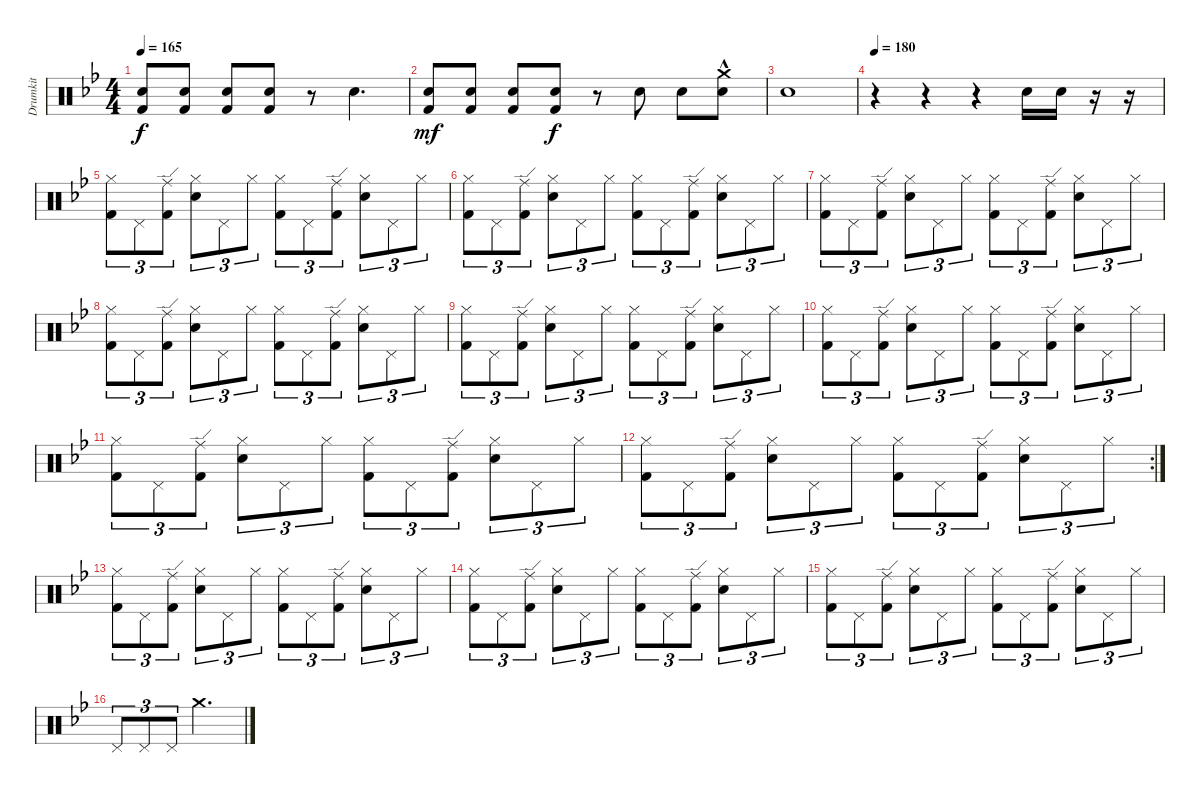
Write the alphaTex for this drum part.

\track ("Drumkit" "Drumkit") {instrument percussion}
\staff {score}
\articulation defaults
\ts (4 4)
\tempo 165
\clef neutral
\ks bb
("Snare (hit) 2" "Kick (hit) 2").8{dy f} ("Snare (hit) 2" "Kick (hit) 2").8 ("Snare (hit) 2" "Kick (hit) 2").8 ("Snare (hit) 2" "Kick (hit) 2").8 r.8 "Snare (hit) 2".4{d} |
("Snare (hit) 2" "Kick (hit) 2").8{dy mf} ("Snare (hit) 2" "Kick (hit) 2").8 ("Snare (hit) 2" "Kick (hit) 2").8 ("Snare (hit) 2" "Kick (hit) 2").8{dy f} r.8 "Snare (hit) 2".8 "Snare (hit) 2".8 ("Snare (hit) 2" "Crash medium (hit)"{hac}).8 |
"Snare (hit) 2".1 |
\tempo 180
r.4 r.4 r.4 "Snare (hit) 2".16 "Snare (hit) 2".16 r.16 r.16 |
("Hi-Hat (closed)" "Kick (hit) 2").8{tu (3 2)} "Pedal Hi-Hat (hit)".8{tu (3 2)} ("Kick (hit) 2" "Ride (edge)").8{tu (3 2)} ("Hi-Hat (closed)" "Snare (hit) 2").8{tu (3 2)} "Pedal Hi-Hat (hit)".8{tu (3 2)} "Hi-Hat (closed)".8{tu (3 2)} ("Hi-Hat (closed)" "Kick (hit) 2").8{tu (3 2)} "Pedal Hi-Hat (hit)".8{tu (3 2)} ("Kick (hit) 2" "Ride (edge)").8{tu (3 2)} ("Hi-Hat (closed)" "Snare (hit) 2").8{tu (3 2)} "Pedal Hi-Hat (hit)".8{tu (3 2)} "Hi-Hat (closed)".8{tu (3 2)} |
("Hi-Hat (closed)" "Kick (hit) 2").8{tu (3 2)} "Pedal Hi-Hat (hit)".8{tu (3 2)} ("Kick (hit) 2" "Ride (edge)").8{tu (3 2)} ("Hi-Hat (closed)" "Snare (hit) 2").8{tu (3 2)} "Pedal Hi-Hat (hit)".8{tu (3 2)} "Hi-Hat (closed)".8{tu (3 2)} ("Hi-Hat (closed)" "Kick (hit) 2").8{tu (3 2)} "Pedal Hi-Hat (hit)".8{tu (3 2)} ("Kick (hit) 2" "Ride (edge)").8{tu (3 2)} ("Hi-Hat (closed)" "Snare (hit) 2").8{tu (3 2)} "Pedal Hi-Hat (hit)".8{tu (3 2)} "Hi-Hat (closed)".8{tu (3 2)} |
("Hi-Hat (closed)" "Kick (hit) 2").8{tu (3 2)} "Pedal Hi-Hat (hit)".8{tu (3 2)} ("Kick (hit) 2" "Ride (edge)").8{tu (3 2)} ("Hi-Hat (closed)" "Snare (hit) 2").8{tu (3 2)} "Pedal Hi-Hat (hit)".8{tu (3 2)} "Hi-Hat (closed)".8{tu (3 2)} ("Hi-Hat (closed)" "Kick (hit) 2").8{tu (3 2)} "Pedal Hi-Hat (hit)".8{tu (3 2)} ("Kick (hit) 2" "Ride (edge)").8{tu (3 2)} ("Hi-Hat (closed)" "Snare (hit) 2").8{tu (3 2)} "Pedal Hi-Hat (hit)".8{tu (3 2)} "Hi-Hat (closed)".8{tu (3 2)} |
("Hi-Hat (closed)" "Kick (hit) 2").8{tu (3 2)} "Pedal Hi-Hat (hit)".8{tu (3 2)} ("Kick (hit) 2" "Ride (edge)").8{tu (3 2)} ("Hi-Hat (closed)" "Snare (hit) 2").8{tu (3 2)} "Pedal Hi-Hat (hit)".8{tu (3 2)} "Hi-Hat (closed)".8{tu (3 2)} ("Hi-Hat (closed)" "Kick (hit) 2").8{tu (3 2)} "Pedal Hi-Hat (hit)".8{tu (3 2)} ("Kick (hit) 2" "Ride (edge)").8{tu (3 2)} ("Hi-Hat (closed)" "Snare (hit) 2").8{tu (3 2)} "Pedal Hi-Hat (hit)".8{tu (3 2)} "Hi-Hat (closed)".8{tu (3 2)} |
("Hi-Hat (closed)" "Kick (hit) 2").8{tu (3 2)} "Pedal Hi-Hat (hit)".8{tu (3 2)} ("Kick (hit) 2" "Ride (edge)").8{tu (3 2)} ("Hi-Hat (closed)" "Snare (hit) 2").8{tu (3 2)} "Pedal Hi-Hat (hit)".8{tu (3 2)} "Hi-Hat (closed)".8{tu (3 2)} ("Hi-Hat (closed)" "Kick (hit) 2").8{tu (3 2)} "Pedal Hi-Hat (hit)".8{tu (3 2)} ("Kick (hit) 2" "Ride (edge)").8{tu (3 2)} ("Hi-Hat (closed)" "Snare (hit) 2").8{tu (3 2)} "Pedal Hi-Hat (hit)".8{tu (3 2)} "Hi-Hat (closed)".8{tu (3 2)} |
("Hi-Hat (closed)" "Kick (hit) 2").8{tu (3 2)} "Pedal Hi-Hat (hit)".8{tu (3 2)} ("Kick (hit) 2" "Ride (edge)").8{tu (3 2)} ("Hi-Hat (closed)" "Snare (hit) 2").8{tu (3 2)} "Pedal Hi-Hat (hit)".8{tu (3 2)} "Hi-Hat (closed)".8{tu (3 2)} ("Hi-Hat (closed)" "Kick (hit) 2").8{tu (3 2)} "Pedal Hi-Hat (hit)".8{tu (3 2)} ("Kick (hit) 2" "Ride (edge)").8{tu (3 2)} ("Hi-Hat (closed)" "Snare (hit) 2").8{tu (3 2)} "Pedal Hi-Hat (hit)".8{tu (3 2)} "Hi-Hat (closed)".8{tu (3 2)} |
("Hi-Hat (closed)" "Kick (hit) 2").8{tu (3 2)} "Pedal Hi-Hat (hit)".8{tu (3 2)} ("Kick (hit) 2" "Ride (edge)").8{tu (3 2)} ("Hi-Hat (closed)" "Snare (hit) 2").8{tu (3 2)} "Pedal Hi-Hat (hit)".8{tu (3 2)} "Hi-Hat (closed)".8{tu (3 2)} ("Hi-Hat (closed)" "Kick (hit) 2").8{tu (3 2)} "Pedal Hi-Hat (hit)".8{tu (3 2)} ("Kick (hit) 2" "Ride (edge)").8{tu (3 2)} ("Hi-Hat (closed)" "Snare (hit) 2").8{tu (3 2)} "Pedal Hi-Hat (hit)".8{tu (3 2)} "Hi-Hat (closed)".8{tu (3 2)} |
\rc 2
("Hi-Hat (closed)" "Kick (hit) 2").8{tu (3 2)} "Pedal Hi-Hat (hit)".8{tu (3 2)} ("Kick (hit) 2" "Ride (edge)").8{tu (3 2)} ("Hi-Hat (closed)" "Snare (hit) 2").8{tu (3 2)} "Pedal Hi-Hat (hit)".8{tu (3 2)} "Hi-Hat (closed)".8{tu (3 2)} ("Hi-Hat (closed)" "Kick (hit) 2").8{tu (3 2)} "Pedal Hi-Hat (hit)".8{tu (3 2)} ("Kick (hit) 2" "Ride (edge)").8{tu (3 2)} ("Hi-Hat (closed)" "Snare (hit) 2").8{tu (3 2)} "Pedal Hi-Hat (hit)".8{tu (3 2)} "Hi-Hat (closed)".8{tu (3 2)} |
("Hi-Hat (closed)" "Kick (hit) 2").8{tu (3 2)} "Pedal Hi-Hat (hit)".8{tu (3 2)} ("Kick (hit) 2" "Ride (edge)").8{tu (3 2)} ("Hi-Hat (closed)" "Snare (hit) 2").8{tu (3 2)} "Pedal Hi-Hat (hit)".8{tu (3 2)} "Hi-Hat (closed)".8{tu (3 2)} ("Hi-Hat (closed)" "Kick (hit) 2").8{tu (3 2)} "Pedal Hi-Hat (hit)".8{tu (3 2)} ("Kick (hit) 2" "Ride (edge)").8{tu (3 2)} ("Hi-Hat (closed)" "Snare (hit) 2").8{tu (3 2)} "Pedal Hi-Hat (hit)".8{tu (3 2)} "Hi-Hat (closed)".8{tu (3 2)} |
("Hi-Hat (closed)" "Kick (hit) 2").8{tu (3 2)} "Pedal Hi-Hat (hit)".8{tu (3 2)} ("Kick (hit) 2" "Ride (edge)").8{tu (3 2)} ("Hi-Hat (closed)" "Snare (hit) 2").8{tu (3 2)} "Pedal Hi-Hat (hit)".8{tu (3 2)} "Hi-Hat (closed)".8{tu (3 2)} ("Hi-Hat (closed)" "Kick (hit) 2").8{tu (3 2)} "Pedal Hi-Hat (hit)".8{tu (3 2)} ("Kick (hit) 2" "Ride (edge)").8{tu (3 2)} ("Hi-Hat (closed)" "Snare (hit) 2").8{tu (3 2)} "Pedal Hi-Hat (hit)".8{tu (3 2)} "Hi-Hat (closed)".8{tu (3 2)} |
("Hi-Hat (closed)" "Kick (hit) 2").8{tu (3 2)} "Pedal Hi-Hat (hit)".8{tu (3 2)} ("Kick (hit) 2" "Ride (edge)").8{tu (3 2)} ("Hi-Hat (closed)" "Snare (hit) 2").8{tu (3 2)} "Pedal Hi-Hat (hit)".8{tu (3 2)} "Hi-Hat (closed)".8{tu (3 2)} ("Hi-Hat (closed)" "Kick (hit) 2").8{tu (3 2)} "Pedal Hi-Hat (hit)".8{tu (3 2)} ("Kick (hit) 2" "Ride (edge)").8{tu (3 2)} ("Hi-Hat (closed)" "Snare (hit) 2").8{tu (3 2)} "Pedal Hi-Hat (hit)".8{tu (3 2)} "Hi-Hat (closed)".8{tu (3 2)} |
"Pedal Hi-Hat (hit)".8{tu (3 2)} "Pedal Hi-Hat (hit)".8{tu (3 2)} "Pedal Hi-Hat (hit)".8{tu (3 2)} "Crash medium (hit)".2{d}
